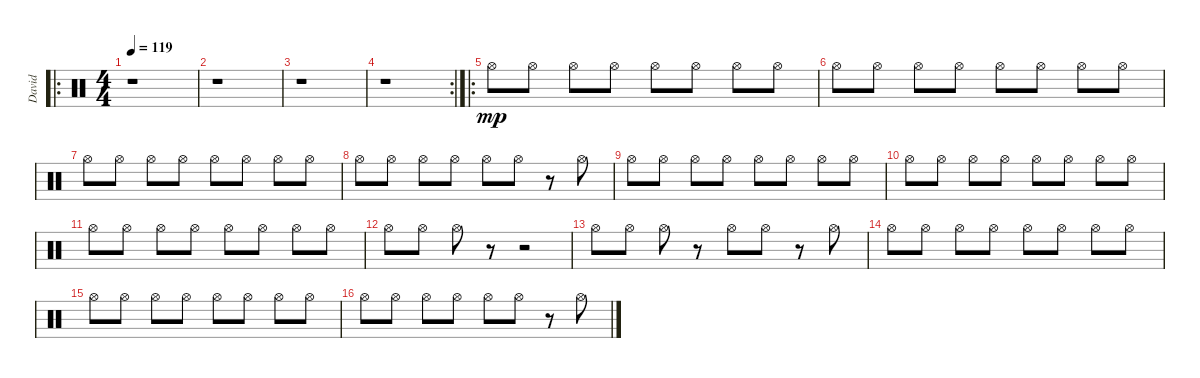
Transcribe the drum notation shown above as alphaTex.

\track ("David" "David") {instrument percussion}
\staff {score}
\articulation defaults
\ro
\ts (4 4)
\tempo 119
\clef neutral
\ks c
r.1{dy mp} |
r.1 |
r.1 |
\rc 2
r.1 |
\ro "Hi-Hat (open)".8 "Hi-Hat (open)".8 "Hi-Hat (open)".8 "Hi-Hat (open)".8 "Hi-Hat (open)".8 "Hi-Hat (open)".8 "Hi-Hat (open)".8 "Hi-Hat (open)".8
|
"Hi-Hat (open)".8 "Hi-Hat (open)".8 "Hi-Hat (open)".8 "Hi-Hat (open)".8 "Hi-Hat (open)".8 "Hi-Hat (open)".8 "Hi-Hat (open)".8 "Hi-Hat (open)".8 |
"Hi-Hat (open)".8 "Hi-Hat (open)".8 "Hi-Hat (open)".8 "Hi-Hat (open)".8 "Hi-Hat (open)".8 "Hi-Hat (open)".8 "Hi-Hat (open)".8 "Hi-Hat (open)".8 |
"Hi-Hat (open)".8 "Hi-Hat (open)".8 "Hi-Hat (open)".8 "Hi-Hat (open)".8 "Hi-Hat (open)".8 "Hi-Hat (open)".8 r.8 "Hi-Hat (open)".8 |
"Hi-Hat (open)".8 "Hi-Hat (open)".8 "Hi-Hat (open)".8 "Hi-Hat (open)".8 "Hi-Hat (open)".8 "Hi-Hat (open)".8 "Hi-Hat (open)".8 "Hi-Hat (open)".8 |
"Hi-Hat (open)".8 "Hi-Hat (open)".8 "Hi-Hat (open)".8 "Hi-Hat (open)".8 "Hi-Hat (open)".8 "Hi-Hat (open)".8 "Hi-Hat (open)".8 "Hi-Hat (open)".8 |
"Hi-Hat (open)".8 "Hi-Hat (open)".8 "Hi-Hat (open)".8 "Hi-Hat (open)".8 "Hi-Hat (open)".8 "Hi-Hat (open)".8 "Hi-Hat (open)".8 "Hi-Hat (open)".8 |
"Hi-Hat (open)".8 "Hi-Hat (open)".8 "Hi-Hat (open)".8 r.8 r.2 |
"Hi-Hat (open)".8 "Hi-Hat (open)".8 "Hi-Hat (open)".8 r.8 "Hi-Hat (open)".8 "Hi-Hat (open)".8 r.8 "Hi-Hat (open)".8 |
"Hi-Hat (open)".8 "Hi-Hat (open)".8 "Hi-Hat (open)".8 "Hi-Hat (open)".8 "Hi-Hat (open)".8 "Hi-Hat (open)".8 "Hi-Hat (open)".8 "Hi-Hat (open)".8 |
"Hi-Hat (open)".8 "Hi-Hat (open)".8 "Hi-Hat (open)".8 "Hi-Hat (open)".8 "Hi-Hat (open)".8 "Hi-Hat (open)".8 "Hi-Hat (open)".8 "Hi-Hat (open)".8 |
"Hi-Hat (open)".8 "Hi-Hat (open)".8 "Hi-Hat (open)".8 "Hi-Hat (open)".8 "Hi-Hat (open)".8 "Hi-Hat (open)".8 r.8 "Hi-Hat (open)".8
